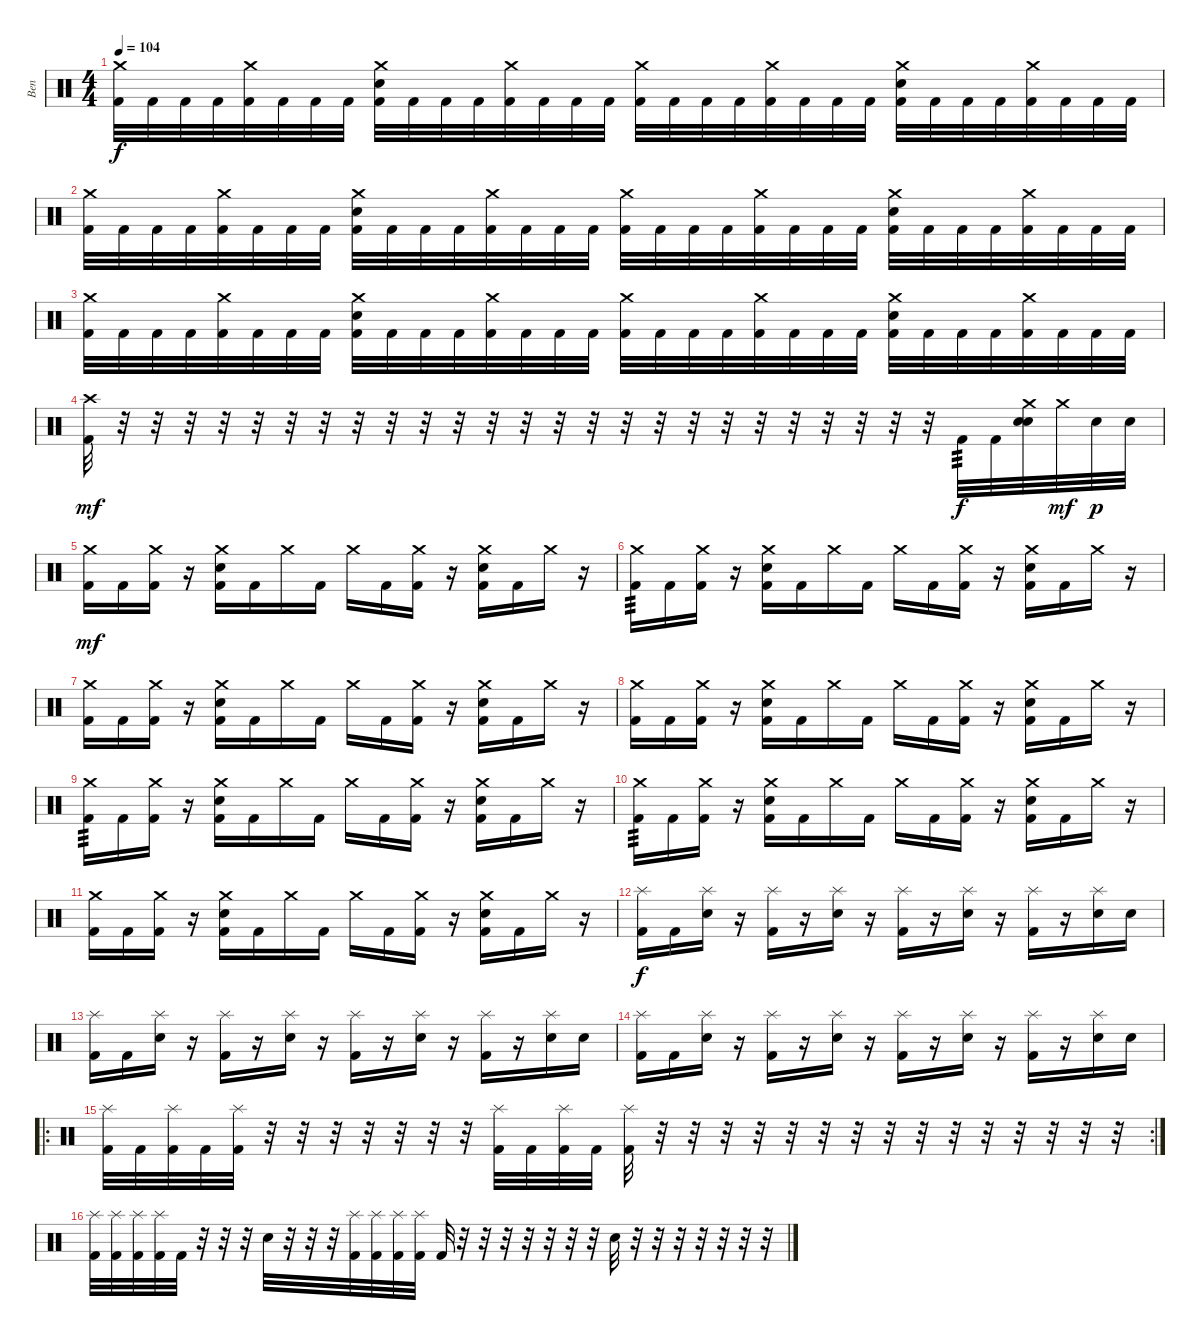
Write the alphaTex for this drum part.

\track ("Ben" "Ben") {instrument percussion}
\staff {score}
\articulation defaults
\ts (4 4)
\tempo 104
\clef neutral
\ks c
("Crash medium (hit)" "Kick (hit) 2").32{dy f} "Kick (hit) 2".32 "Kick (hit) 2".32 "Kick (hit) 2".32 ("Crash medium (hit)" "Kick (hit) 2").32 "Kick (hit) 2".32 "Kick (hit) 2".32 "Kick (hit) 2".32 ("Crash medium (hit)" "Snare (hit) 2" "Kick (hit) 2").32 "Kick (hit) 2".32 "Kick (hit) 2".32 "Kick (hit) 2".32 ("Crash medium (hit)" "Kick (hit) 2").32 "Kick (hit) 2".32 "Kick (hit) 2".32 "Kick (hit) 2".32 ("Crash medium (hit)" "Kick (hit) 2").32 "Kick (hit) 2".32 "Kick (hit) 2".32 "Kick (hit) 2".32 ("Crash medium (hit)" "Kick (hit) 2").32 "Kick (hit) 2".32 "Kick (hit) 2".32 "Kick (hit) 2".32 ("Crash medium (hit)" "Snare (hit) 2" "Kick (hit) 2").32 "Kick (hit) 2".32 "Kick (hit) 2".32 "Kick (hit) 2".32 ("Crash medium (hit)" "Kick (hit) 2").32 "Kick (hit) 2".32 "Kick (hit) 2".32 "Kick (hit) 2".32 |
("Crash medium (hit)" "Kick (hit) 2").32 "Kick (hit) 2".32 "Kick (hit) 2".32 "Kick (hit) 2".32 ("Crash medium (hit)" "Kick (hit) 2").32 "Kick (hit) 2".32 "Kick (hit) 2".32 "Kick (hit) 2".32 ("Crash medium (hit)" "Snare (hit) 2" "Kick (hit) 2").32 "Kick (hit) 2".32 "Kick (hit) 2".32 "Kick (hit) 2".32 ("Crash medium (hit)" "Kick (hit) 2").32 "Kick (hit) 2".32 "Kick (hit) 2".32 "Kick (hit) 2".32 ("Crash medium (hit)" "Kick (hit) 2").32 "Kick (hit) 2".32 "Kick (hit) 2".32 "Kick (hit) 2".32 ("Crash medium (hit)" "Kick (hit) 2").32 "Kick (hit) 2".32 "Kick (hit) 2".32 "Kick (hit) 2".32 ("Crash medium (hit)" "Snare (hit) 2" "Kick (hit) 2").32 "Kick (hit) 2".32 "Kick (hit) 2".32 "Kick (hit) 2".32 ("Crash medium (hit)" "Kick (hit) 2").32 "Kick (hit) 2".32 "Kick (hit) 2".32 "Kick (hit) 2".32 |
("Crash medium (hit)" "Kick (hit) 2").32 "Kick (hit) 2".32 "Kick (hit) 2".32 "Kick (hit) 2".32 ("Crash medium (hit)" "Kick (hit) 2").32 "Kick (hit) 2".32 "Kick (hit) 2".32 "Kick (hit) 2".32 ("Crash medium (hit)" "Snare (hit) 2" "Kick (hit) 2").32 "Kick (hit) 2".32 "Kick (hit) 2".32 "Kick (hit) 2".32 ("Crash medium (hit)" "Kick (hit) 2").32 "Kick (hit) 2".32 "Kick (hit) 2".32 "Kick (hit) 2".32 ("Crash medium (hit)" "Kick (hit) 2").32 "Kick (hit) 2".32 "Kick (hit) 2".32 "Kick (hit) 2".32 ("Crash medium (hit)" "Kick (hit) 2").32 "Kick (hit) 2".32 "Kick (hit) 2".32 "Kick (hit) 2".32 ("Crash medium (hit)" "Snare (hit) 2" "Kick (hit) 2").32 "Kick (hit) 2".32 "Kick (hit) 2".32 "Kick (hit) 2".32 ("Crash medium (hit)" "Kick (hit) 2").32 "Kick (hit) 2".32 "Kick (hit) 2".32 "Kick (hit) 2".32 |
("Crash high (hit)" "Kick (hit) 2").32{dy mf} r.32 r.32 r.32 r.32 r.32 r.32 r.32 r.32 r.32 r.32 r.32 r.32 r.32 r.32 r.32 r.32 r.32 r.32 r.32 r.32 r.32 r.32 r.32 r.32 r.32 "Kick (hit) 2".32{tp 3 dy f} "Kick (hit) 2".32 ("Crash medium (hit)" "Snare (hit) 2" "Snare (hit) 2").32 "Crash medium (hit)".32{dy mf} "Snare (hit)".32{dy p} "Snare (hit)".32 |
("Crash medium (hit)" "Kick (hit) 2").16{dy mf} "Kick (hit) 2".16 ("Crash medium (hit)" "Kick (hit) 2").16 r.16 ("Crash medium (hit)" "Snare (hit) 2" "Kick (hit) 2").16 "Kick (hit) 2".16 "Crash medium (hit)".16 "Kick (hit) 2".16 "Crash medium (hit)".16 "Kick (hit) 2".16 ("Crash medium (hit)" "Kick (hit) 2").16 r.16 ("Crash medium (hit)" "Snare (hit) 2" "Kick (hit) 2").16 "Kick (hit) 2".16 "Crash medium (hit)".16 r.16 |
("Crash medium (hit)" "Kick (hit) 2").16{tp 3} "Kick (hit) 2".16 ("Crash medium (hit)" "Kick (hit) 2").16 r.16 ("Crash medium (hit)" "Snare (hit) 2" "Kick (hit) 2").16 "Kick (hit) 2".16 "Crash medium (hit)".16 "Kick (hit) 2".16 "Crash medium (hit)".16 "Kick (hit) 2".16 ("Crash medium (hit)" "Kick (hit) 2").16 r.16 ("Crash medium (hit)" "Snare (hit) 2" "Kick (hit) 2").16 "Kick (hit) 2".16 "Crash medium (hit)".16 r.16 |
("Crash medium (hit)" "Kick (hit) 2").16 "Kick (hit) 2".16 ("Crash medium (hit)" "Kick (hit) 2").16 r.16 ("Crash medium (hit)" "Snare (hit) 2" "Kick (hit) 2").16 "Kick (hit) 2".16 "Crash medium (hit)".16 "Kick (hit) 2".16 "Crash medium (hit)".16 "Kick (hit) 2".16 ("Crash medium (hit)" "Kick (hit) 2").16 r.16 ("Crash medium (hit)" "Snare (hit) 2" "Kick (hit) 2").16 "Kick (hit) 2".16 "Crash medium (hit)".16 r.16 |
("Crash medium (hit)" "Kick (hit) 2").16 "Kick (hit) 2".16 ("Crash medium (hit)" "Kick (hit) 2").16 r.16 ("Crash medium (hit)" "Snare (hit) 2" "Kick (hit) 2").16 "Kick (hit) 2".16 "Crash medium (hit)".16 "Kick (hit) 2".16 "Crash medium (hit)".16 "Kick (hit) 2".16 ("Crash medium (hit)" "Kick (hit) 2").16 r.16 ("Crash medium (hit)" "Snare (hit) 2" "Kick (hit) 2").16 "Kick (hit) 2".16 "Crash medium (hit)".16 r.16 |
("Crash medium (hit)" "Kick (hit) 2").16{tp 3} "Kick (hit) 2".16 ("Crash medium (hit)" "Kick (hit) 2").16 r.16 ("Crash medium (hit)" "Snare (hit) 2" "Kick (hit) 2").16 "Kick (hit) 2".16 "Crash medium (hit)".16 "Kick (hit) 2".16 "Crash medium (hit)".16 "Kick (hit) 2".16 ("Crash medium (hit)" "Kick (hit) 2").16 r.16 ("Crash medium (hit)" "Snare (hit) 2" "Kick (hit) 2").16 "Kick (hit) 2".16 "Crash medium (hit)".16 r.16 |
("Crash medium (hit)" "Kick (hit) 2").16{tp 3} "Kick (hit) 2".16 ("Crash medium (hit)" "Kick (hit) 2").16 r.16 ("Crash medium (hit)" "Snare (hit) 2" "Kick (hit) 2").16 "Kick (hit) 2".16 "Crash medium (hit)".16 "Kick (hit) 2".16 "Crash medium (hit)".16 "Kick (hit) 2".16 ("Crash medium (hit)" "Kick (hit) 2").16 r.16 ("Crash medium (hit)" "Snare (hit) 2" "Kick (hit) 2").16 "Kick (hit) 2".16 "Crash medium (hit)".16 r.16 |
("Crash medium (hit)" "Kick (hit) 2").16 "Kick (hit) 2".16 ("Crash medium (hit)" "Kick (hit) 2").16 r.16 ("Crash medium (hit)" "Snare (hit) 2" "Kick (hit) 2").16 "Kick (hit) 2".16 "Crash medium (hit)".16 "Kick (hit) 2".16 "Crash medium (hit)".16 "Kick (hit) 2".16 ("Crash medium (hit)" "Kick (hit) 2").16 r.16 ("Crash medium (hit)" "Snare (hit) 2" "Kick (hit) 2").16 "Kick (hit) 2".16 "Crash medium (hit)".16 r.16 |
("Splash (hit)" "Kick (hit) 2").16{dy f} "Kick (hit) 2".16 ("Splash (hit)" "Snare (hit) 2").16 r.16 ("Splash (hit)" "Kick (hit) 2").16 r.16 ("Splash (hit)" "Snare (hit) 2").16 r.16 ("Splash (hit)" "Kick (hit) 2").16 r.16 ("Splash (hit)" "Snare (hit) 2").16 r.16 ("Splash (hit)" "Kick (hit) 2").16 r.16 ("Splash (hit)" "Snare (hit) 2").16 "Snare (hit) 2".16 |
("Splash (hit)" "Kick (hit) 2").16 "Kick (hit) 2".16 ("Splash (hit)" "Snare (hit) 2").16 r.16 ("Splash (hit)" "Kick (hit) 2").16 r.16 ("Splash (hit)" "Snare (hit) 2").16 r.16 ("Splash (hit)" "Kick (hit) 2").16 r.16 ("Splash (hit)" "Snare (hit) 2").16 r.16 ("Splash (hit)" "Kick (hit) 2").16 r.16 ("Splash (hit)" "Snare (hit) 2").16 "Snare (hit) 2".16 |
("Splash (hit)" "Kick (hit) 2").16 "Kick (hit) 2".16 ("Splash (hit)" "Snare (hit) 2").16 r.16 ("Splash (hit)" "Kick (hit) 2").16 r.16 ("Splash (hit)" "Snare (hit) 2").16 r.16 ("Splash (hit)" "Kick (hit) 2").16 r.16 ("Splash (hit)" "Snare (hit) 2").16 r.16 ("Splash (hit)" "Kick (hit) 2").16 r.16 ("Splash (hit)" "Snare (hit) 2").16 "Snare (hit) 2".16 |
\ro
\rc 2
("Splash (hit)" "Kick (hit) 2").32 "Kick (hit) 2".32 ("Splash (hit)" "Kick (hit) 2").32 "Kick (hit) 2".32 ("Splash (hit)" "Kick (hit) 2").32 r.32 r.32 r.32 r.32 r.32 r.32 r.32 ("Splash (hit)" "Kick (hit) 2").32 "Kick (hit) 2".32 ("Splash (hit)" "Kick (hit) 2").32 "Kick (hit) 2".32 ("Splash (hit)" "Kick (hit) 2").32 r.32 r.32 r.32 r.32 r.32 r.32 r.32 r.32 r.32 r.32 r.32 r.32 r.32 r.32 r.32 |
("Splash (hit)" "Kick (hit) 2").32 ("Splash (hit)" "Kick (hit) 2").32 ("Splash (hit)" "Kick (hit) 2").32 ("Splash (hit)" "Kick (hit) 2").32 "Kick (hit) 2".32 r.32 r.32 r.32 "Snare (hit) 2".32 r.32 r.32 r.32 ("Splash (hit)" "Kick (hit) 2").32 ("Splash (hit)" "Kick (hit) 2").32 ("Splash (hit)" "Kick (hit) 2").32 ("Splash (hit)" "Kick (hit) 2").32 "Kick (hit) 2".32 r.32 r.32 r.32 r.32 r.32 r.32 r.32 "Snare (hit) 2".32 r.32 r.32 r.32 r.32 r.32 r.32 r.32
